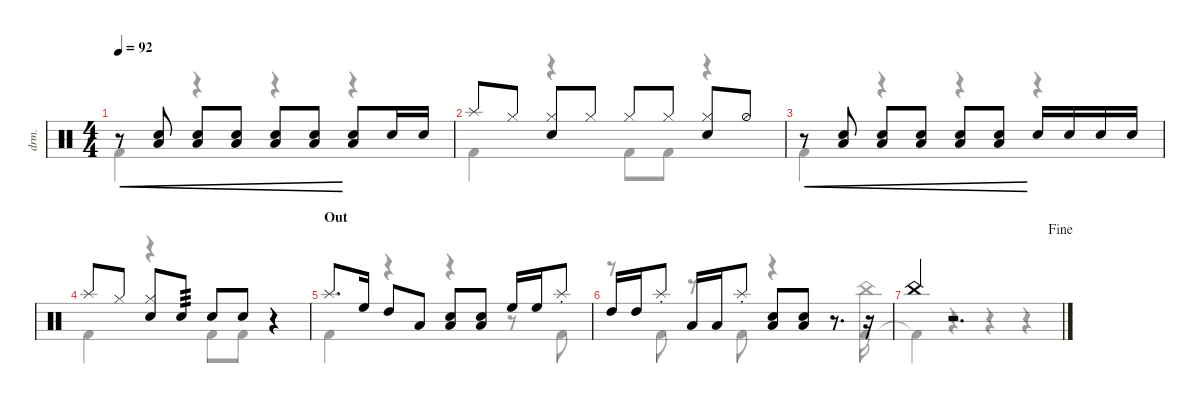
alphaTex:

\defaultSystemsLayout 4
\hideDynamics
\bracketExtendMode nobrackets
\track ("Drumkit" "drm.") {defaultSystemsLayout 4 instrument percussion}
\staff {score}
\articulation defaults
\voice
\ts (4 4)
\tempo 92
\clef neutral
\ks c
r.8{cre dy mf beam Up} ("Low Tom (hit)" "Snare (hit) 2").8{cre beam Up} ("Low Tom (hit)" "Snare (hit) 2").8{cre beam Up} ("Low Tom (hit)" "Snare (hit) 2").8{cre beam Up} ("Low Tom (hit)" "Snare (hit) 2").8{cre beam Up} ("Low Tom (hit)" "Snare (hit) 2").8{cre beam Up} ("Snare (hit) 2" "Low Tom (hit)").8{beam Up} "Snare (hit) 2".16{beam Up} "Snare (hit) 2".16{beam Up} |
"Splash (hit)".8{beam Up} "Hi-Hat (closed)".8{beam Up} ("Hi-Hat (closed)" "Snare (hit) 2").8{beam Up} "Hi-Hat (closed)".8{beam Up} "Hi-Hat (closed)".8{beam Up} "Hi-Hat (closed)".8{beam Up} ("Hi-Hat (closed)" "Snare (hit) 2").8{beam Up} "Hi-Hat (half)".8{beam Up} |
r.8{cre beam Up} ("Low Tom (hit)" "Snare (hit) 2").8{cre beam Up} ("Low Tom (hit)" "Snare (hit) 2").8{cre beam Up} ("Low Tom (hit)" "Snare (hit) 2").8{cre beam Up} ("Low Tom (hit)" "Snare (hit) 2").8{cre beam Up} ("Low Tom (hit)" "Snare (hit) 2").8{cre beam Up} "Snare (hit) 2".16{beam Up} "Snare (hit) 2".16{beam Up} "Snare (hit) 2".16{beam Up} "Snare (hit) 2".16{beam Up} |
"Splash (hit)".8{beam Up} "Hi-Hat (closed)".8{beam Up} ("Hi-Hat (closed)" "Snare (hit) 2").8{beam Up} "Snare (hit) 2".8{tp 3 beam Up} "Snare (hit) 2".8{beam Up} "Snare (hit) 2".8{beam Up} r.4{beam Up} |
\section ("" "Out")
"Splash (hit)".8{d beam Up} "High Floor Tom (hit)".16{beam Up} "High Tom (hit)".8{beam Up} "Low Tom (hit)".8{beam Up} ("Low Tom (hit)" "Snare (hit) 2").8{beam Up} ("Low Tom (hit)" "Snare (hit) 2").8{beam Up} "High Floor Tom (hit)".16{beam Up} "High Floor Tom (hit)".16{beam Up} "Splash (choke)".8{beam Up} |
"High Tom (hit)".16{beam Up} "High Tom (hit)".16{beam Up} "Splash (choke)".8{beam Up} "Low Tom (hit)".16{beam Up} "Low Tom (hit)".16{beam Up} "Splash (choke)".8{beam Up} ("Snare (hit) 2" "Low Tom (hit)").8{beam Up} ("Low Tom (hit)" "Snare (hit) 2").8{beam Up} r.8{d beam Up} r.16{beam Up} |
\jump fine "China (hit)".4{beam Up}
r.2{d beam Up}
\voice
\clef neutral
\ottava regular
\simile none
\ks c "Kick (hit) 2".4{dy mf beam Down}
r.4{beam Down} r.4{beam Down} r.4{beam Down} |
"Kick (hit) 2".4{beam Down} r.4{beam Down} "Kick (hit) 2".8{beam Down} "Kick (hit) 2".8{beam Down} r.4{beam Down} |
"Kick (hit) 2".4{beam Down} r.4{beam Down} r.4{beam Down} r.4{beam Down} |
"Kick (hit) 2".4{beam Down} r.4{beam Down} "Kick (hit) 2".8{beam Down} "Kick (hit) 2".8{beam Down} r.4{beam Down} |
"Kick (hit) 2".4{beam Down} r.4{beam Down} r.4{beam Down} r.8{beam Down} "Kick (hit) 2".8{beam Down} |
r.8{beam Down} "Kick (hit) 2".8{beam Down} r.8{beam Down} "Kick (hit) 2".8{beam Down} r.4{beam Down} r.8{d beam Down} ("Kick (hit) 2" "China (hit)").16{beam Down} |
"Kick (hit) 2"{t}.4{beam Down} r.4{beam Down} r.4{beam Down} r.4{beam Down}
